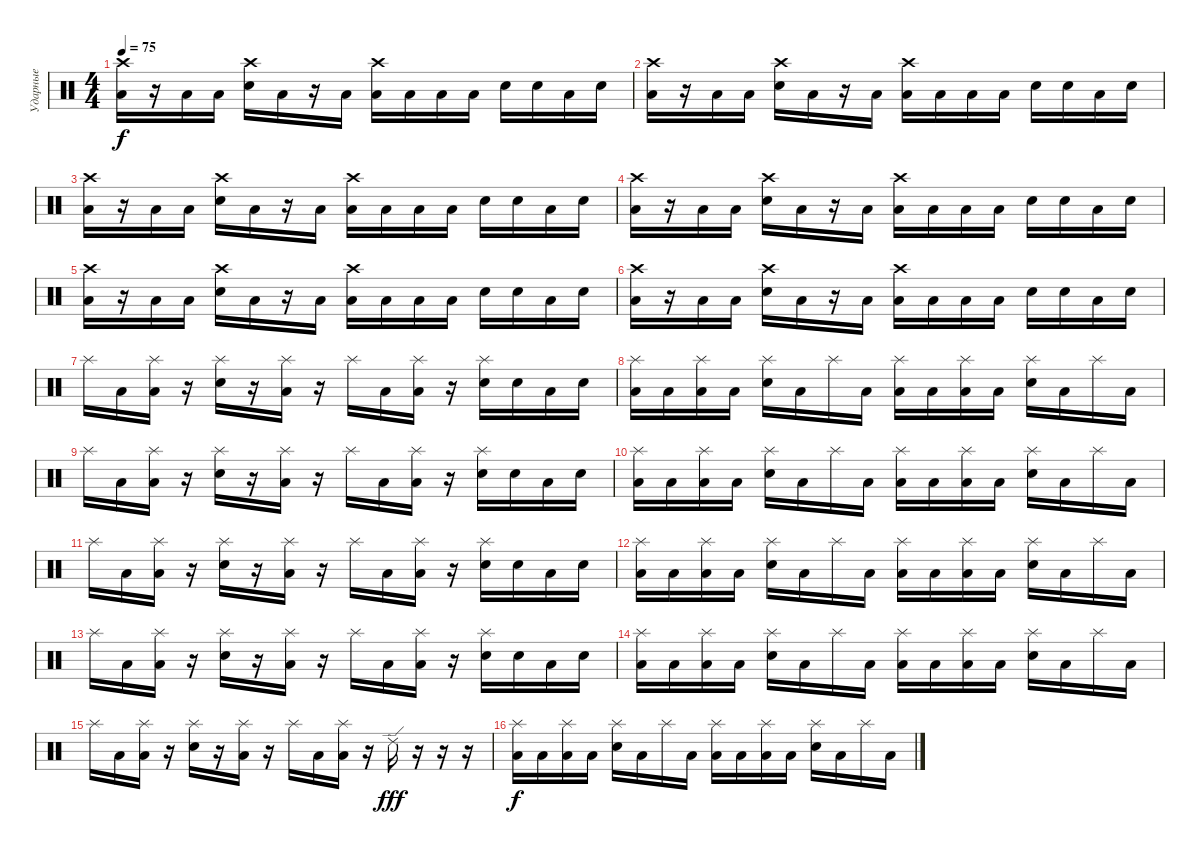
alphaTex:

\track ("Ударные" "Ударные") {instrument percussion}
\staff {score}
\articulation defaults
\ts (4 4)
\tempo 75
\clef neutral
\ks c
("Crash high (hit)" "Low Floor Tom (hit)").16{dy f} r.16 "Low Floor Tom (hit)".16 "Low Floor Tom (hit)".16 ("Crash high (hit)" "Electric Snare (hit)").16 "Low Floor Tom (hit)".16 r.16 "Low Floor Tom (hit)".16 ("Crash high (hit)" "Low Floor Tom (hit)").16 "Low Floor Tom (hit)".16 "Low Floor Tom (hit)".16 "Low Floor Tom (hit)".16 "Electric Snare (hit)".16 "Electric Snare (hit)".16 "Low Floor Tom (hit)".16 "Electric Snare (hit)".16 |
("Crash high (hit)" "Low Floor Tom (hit)").16 r.16 "Low Floor Tom (hit)".16 "Low Floor Tom (hit)".16 ("Crash high (hit)" "Electric Snare (hit)").16 "Low Floor Tom (hit)".16 r.16 "Low Floor Tom (hit)".16 ("Crash high (hit)" "Low Floor Tom (hit)").16 "Low Floor Tom (hit)".16 "Low Floor Tom (hit)".16 "Low Floor Tom (hit)".16 "Electric Snare (hit)".16 "Electric Snare (hit)".16 "Low Floor Tom (hit)".16 "Electric Snare (hit)".16 |
("Crash high (hit)" "Low Floor Tom (hit)").16 r.16 "Low Floor Tom (hit)".16 "Low Floor Tom (hit)".16 ("Crash high (hit)" "Electric Snare (hit)").16 "Low Floor Tom (hit)".16 r.16 "Low Floor Tom (hit)".16 ("Crash high (hit)" "Low Floor Tom (hit)").16 "Low Floor Tom (hit)".16 "Low Floor Tom (hit)".16 "Low Floor Tom (hit)".16 "Electric Snare (hit)".16 "Electric Snare (hit)".16 "Low Floor Tom (hit)".16 "Electric Snare (hit)".16 |
("Crash high (hit)" "Low Floor Tom (hit)").16 r.16 "Low Floor Tom (hit)".16 "Low Floor Tom (hit)".16 ("Crash high (hit)" "Electric Snare (hit)").16 "Low Floor Tom (hit)".16 r.16 "Low Floor Tom (hit)".16 ("Crash high (hit)" "Low Floor Tom (hit)").16 "Low Floor Tom (hit)".16 "Low Floor Tom (hit)".16 "Low Floor Tom (hit)".16 "Electric Snare (hit)".16 "Electric Snare (hit)".16 "Low Floor Tom (hit)".16 "Electric Snare (hit)".16 |
("Crash high (hit)" "Low Floor Tom (hit)").16 r.16 "Low Floor Tom (hit)".16 "Low Floor Tom (hit)".16 ("Crash high (hit)" "Electric Snare (hit)").16 "Low Floor Tom (hit)".16 r.16 "Low Floor Tom (hit)".16 ("Crash high (hit)" "Low Floor Tom (hit)").16 "Low Floor Tom (hit)".16 "Low Floor Tom (hit)".16 "Low Floor Tom (hit)".16 "Electric Snare (hit)".16 "Electric Snare (hit)".16 "Low Floor Tom (hit)".16 "Electric Snare (hit)".16 |
("Crash high (hit)" "Low Floor Tom (hit)").16 r.16 "Low Floor Tom (hit)".16 "Low Floor Tom (hit)".16 ("Crash high (hit)" "Electric Snare (hit)").16 "Low Floor Tom (hit)".16 r.16 "Low Floor Tom (hit)".16 ("Crash high (hit)" "Low Floor Tom (hit)").16 "Low Floor Tom (hit)".16 "Low Floor Tom (hit)".16 "Low Floor Tom (hit)".16 "Electric Snare (hit)".16 "Electric Snare (hit)".16 "Low Floor Tom (hit)".16 "Electric Snare (hit)".16 |
"Splash (hit)".16 "Low Floor Tom (hit)".16 ("Splash (hit)" "Low Floor Tom (hit)").16 r.16 ("Splash (hit)" "Electric Snare (hit)").16 r.16 ("Splash (hit)" "Low Floor Tom (hit)").16 r.16 "Splash (hit)".16 "Low Floor Tom (hit)".16 ("Splash (hit)" "Low Floor Tom (hit)").16 r.16 ("Splash (hit)" "Electric Snare (hit)").16 "Electric Snare (hit)".16 "Low Floor Tom (hit)".16 "Electric Snare (hit)".16 |
("Splash (hit)" "Low Floor Tom (hit)").16 "Low Floor Tom (hit)".16 ("Splash (hit)" "Low Floor Tom (hit)").16 "Low Floor Tom (hit)".16 ("Splash (hit)" "Electric Snare (hit)").16 "Low Floor Tom (hit)".16 "Splash (hit)".16 "Low Floor Tom (hit)".16 ("Splash (hit)" "Low Floor Tom (hit)").16 "Low Floor Tom (hit)".16 ("Splash (hit)" "Low Floor Tom (hit)").16 "Low Floor Tom (hit)".16 ("Splash (hit)" "Electric Snare (hit)").16 "Low Floor Tom (hit)".16 "Splash (hit)".16 "Low Floor Tom (hit)".16 |
"Splash (hit)".16 "Low Floor Tom (hit)".16 ("Splash (hit)" "Low Floor Tom (hit)").16 r.16 ("Splash (hit)" "Electric Snare (hit)").16 r.16 ("Splash (hit)" "Low Floor Tom (hit)").16 r.16 "Splash (hit)".16 "Low Floor Tom (hit)".16 ("Splash (hit)" "Low Floor Tom (hit)").16 r.16 ("Splash (hit)" "Electric Snare (hit)").16 "Electric Snare (hit)".16 "Low Floor Tom (hit)".16 "Electric Snare (hit)".16 |
("Splash (hit)" "Low Floor Tom (hit)").16 "Low Floor Tom (hit)".16 ("Splash (hit)" "Low Floor Tom (hit)").16 "Low Floor Tom (hit)".16 ("Splash (hit)" "Electric Snare (hit)").16 "Low Floor Tom (hit)".16 "Splash (hit)".16 "Low Floor Tom (hit)".16 ("Splash (hit)" "Low Floor Tom (hit)").16 "Low Floor Tom (hit)".16 ("Splash (hit)" "Low Floor Tom (hit)").16 "Low Floor Tom (hit)".16 ("Splash (hit)" "Electric Snare (hit)").16 "Low Floor Tom (hit)".16 "Splash (hit)".16 "Low Floor Tom (hit)".16 |
"Splash (hit)".16 "Low Floor Tom (hit)".16 ("Splash (hit)" "Low Floor Tom (hit)").16 r.16 ("Splash (hit)" "Electric Snare (hit)").16 r.16 ("Splash (hit)" "Low Floor Tom (hit)").16 r.16 "Splash (hit)".16 "Low Floor Tom (hit)".16 ("Splash (hit)" "Low Floor Tom (hit)").16 r.16 ("Splash (hit)" "Electric Snare (hit)").16 "Electric Snare (hit)".16 "Low Floor Tom (hit)".16 "Electric Snare (hit)".16 |
("Splash (hit)" "Low Floor Tom (hit)").16 "Low Floor Tom (hit)".16 ("Splash (hit)" "Low Floor Tom (hit)").16 "Low Floor Tom (hit)".16 ("Splash (hit)" "Electric Snare (hit)").16 "Low Floor Tom (hit)".16 "Splash (hit)".16 "Low Floor Tom (hit)".16 ("Splash (hit)" "Low Floor Tom (hit)").16 "Low Floor Tom (hit)".16 ("Splash (hit)" "Low Floor Tom (hit)").16 "Low Floor Tom (hit)".16 ("Splash (hit)" "Electric Snare (hit)").16 "Low Floor Tom (hit)".16 "Splash (hit)".16 "Low Floor Tom (hit)".16 |
"Splash (hit)".16 "Low Floor Tom (hit)".16 ("Splash (hit)" "Low Floor Tom (hit)").16 r.16 ("Splash (hit)" "Electric Snare (hit)").16 r.16 ("Splash (hit)" "Low Floor Tom (hit)").16 r.16 "Splash (hit)".16 "Low Floor Tom (hit)".16 ("Splash (hit)" "Low Floor Tom (hit)").16 r.16 ("Splash (hit)" "Electric Snare (hit)").16 "Electric Snare (hit)".16 "Low Floor Tom (hit)".16 "Electric Snare (hit)".16 |
("Splash (hit)" "Low Floor Tom (hit)").16 "Low Floor Tom (hit)".16 ("Splash (hit)" "Low Floor Tom (hit)").16 "Low Floor Tom (hit)".16 ("Splash (hit)" "Electric Snare (hit)").16 "Low Floor Tom (hit)".16 "Splash (hit)".16 "Low Floor Tom (hit)".16 ("Splash (hit)" "Low Floor Tom (hit)").16 "Low Floor Tom (hit)".16 ("Splash (hit)" "Low Floor Tom (hit)").16 "Low Floor Tom (hit)".16 ("Splash (hit)" "Electric Snare (hit)").16 "Low Floor Tom (hit)".16 "Splash (hit)".16 "Low Floor Tom (hit)".16 |
"Splash (hit)".16 "Low Floor Tom (hit)".16 ("Splash (hit)" "Low Floor Tom (hit)").16 r.16 ("Splash (hit)" "Electric Snare (hit)").16 r.16 ("Splash (hit)" "Low Floor Tom (hit)").16 r.16 "Splash (hit)".16 "Low Floor Tom (hit)".16 ("Splash (hit)" "Low Floor Tom (hit)").16 r.16 "Ride (edge) 2".16{dy fff} r.16 r.16 r.16 |
("Splash (hit)" "Low Floor Tom (hit)").16{dy f} "Low Floor Tom (hit)".16 ("Splash (hit)" "Low Floor Tom (hit)").16 "Low Floor Tom (hit)".16 ("Splash (hit)" "Electric Snare (hit)").16 "Low Floor Tom (hit)".16 "Splash (hit)".16 "Low Floor Tom (hit)".16 ("Splash (hit)" "Low Floor Tom (hit)").16 "Low Floor Tom (hit)".16 ("Splash (hit)" "Low Floor Tom (hit)").16 "Low Floor Tom (hit)".16 ("Splash (hit)" "Electric Snare (hit)").16 "Low Floor Tom (hit)".16 "Splash (hit)".16 "Low Floor Tom (hit)".16
